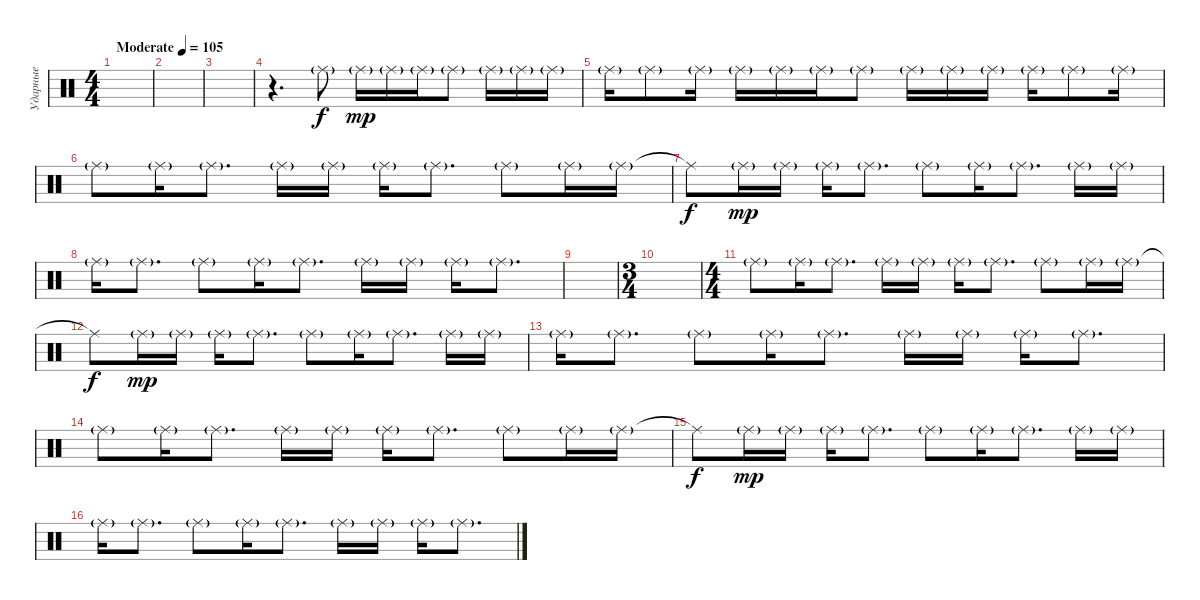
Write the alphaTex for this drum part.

\track ("Ударные" "Ударные") {instrument percussion}
\staff {score}
\articulation defaults
\ts (4 4)
\tempo (105 "Moderate")
\clef neutral
\ks c
|
|
|
r.4{d} "Ride (middle)"{g}.8 "Ride (middle)"{g}.16{dy mp} "Ride (middle)"{g}.16 "Ride (middle)"{g}.16 "Ride (middle)"{g}.8 "Ride (middle)"{g}.16 "Ride (middle)"{g}.16 "Ride (middle)"{g}.16 |
"Ride (middle)"{g}.16 "Ride (middle)"{g}.8 "Ride (middle)"{g}.16 "Ride (middle)"{g}.16 "Ride (middle)"{g}.16 "Ride (middle)"{g}.16 "Ride (middle)"{g}.8 "Ride (middle)"{g}.16 "Ride (middle)"{g}.16 "Ride (middle)"{g}.16 "Ride (middle)"{g}.16 "Ride (middle)"{g}.8 "Ride (middle)"{g}.16 |
"Ride (middle)"{g}.8 "Ride (middle)"{g}.16 "Ride (middle)"{g}.8{d} "Ride (middle)"{g}.16 "Ride (middle)"{g}.16 "Ride (middle)"{g}.16 "Ride (middle)"{g}.8{d} "Ride (middle)"{g}.8 "Ride (middle)"{g}.16 "Ride (middle)"{g}.16 |
"Ride (middle)"{t}.8{dy f} "Ride (middle)"{g}.16{dy mp} "Ride (middle)"{g}.16 "Ride (middle)"{g}.16 "Ride (middle)"{g}.8{d} "Ride (middle)"{g}.8 "Ride (middle)"{g}.16 "Ride (middle)"{g}.8{d} "Ride (middle)"{g}.16 "Ride (middle)"{g}.16 |
"Ride (middle)"{g}.16 "Ride (middle)"{g}.8{d} "Ride (middle)"{g}.8 "Ride (middle)"{g}.16 "Ride (middle)"{g}.8{d} "Ride (middle)"{g}.16 "Ride (middle)"{g}.16 "Ride (middle)"{g}.16 "Ride (middle)"{g}.8{d} |
|
\ts (3 4)
|
\ts (4 4)
"Ride (middle)"{g}.8 "Ride (middle)"{g}.16 "Ride (middle)"{g}.8{d} "Ride (middle)"{g}.16 "Ride (middle)"{g}.16 "Ride (middle)"{g}.16 "Ride (middle)"{g}.8{d} "Ride (middle)"{g}.8 "Ride (middle)"{g}.16 "Ride (middle)"{g}.16 |
"Ride (middle)"{t}.8{dy f} "Ride (middle)"{g}.16{dy mp} "Ride (middle)"{g}.16 "Ride (middle)"{g}.16 "Ride (middle)"{g}.8{d} "Ride (middle)"{g}.8 "Ride (middle)"{g}.16 "Ride (middle)"{g}.8{d} "Ride (middle)"{g}.16 "Ride (middle)"{g}.16 |
"Ride (middle)"{g}.16 "Ride (middle)"{g}.8{d} "Ride (middle)"{g}.8 "Ride (middle)"{g}.16 "Ride (middle)"{g}.8{d} "Ride (middle)"{g}.16 "Ride (middle)"{g}.16 "Ride (middle)"{g}.16 "Ride (middle)"{g}.8{d} |
"Ride (middle)"{g}.8 "Ride (middle)"{g}.16 "Ride (middle)"{g}.8{d} "Ride (middle)"{g}.16 "Ride (middle)"{g}.16 "Ride (middle)"{g}.16 "Ride (middle)"{g}.8{d} "Ride (middle)"{g}.8 "Ride (middle)"{g}.16 "Ride (middle)"{g}.16 |
"Ride (middle)"{t}.8{dy f} "Ride (middle)"{g}.16{dy mp} "Ride (middle)"{g}.16 "Ride (middle)"{g}.16 "Ride (middle)"{g}.8{d} "Ride (middle)"{g}.8 "Ride (middle)"{g}.16 "Ride (middle)"{g}.8{d} "Ride (middle)"{g}.16 "Ride (middle)"{g}.16 |
"Ride (middle)"{g}.16 "Ride (middle)"{g}.8{d} "Ride (middle)"{g}.8 "Ride (middle)"{g}.16 "Ride (middle)"{g}.8{d} "Ride (middle)"{g}.16 "Ride (middle)"{g}.16 "Ride (middle)"{g}.16 "Ride (middle)"{g}.8{d}
